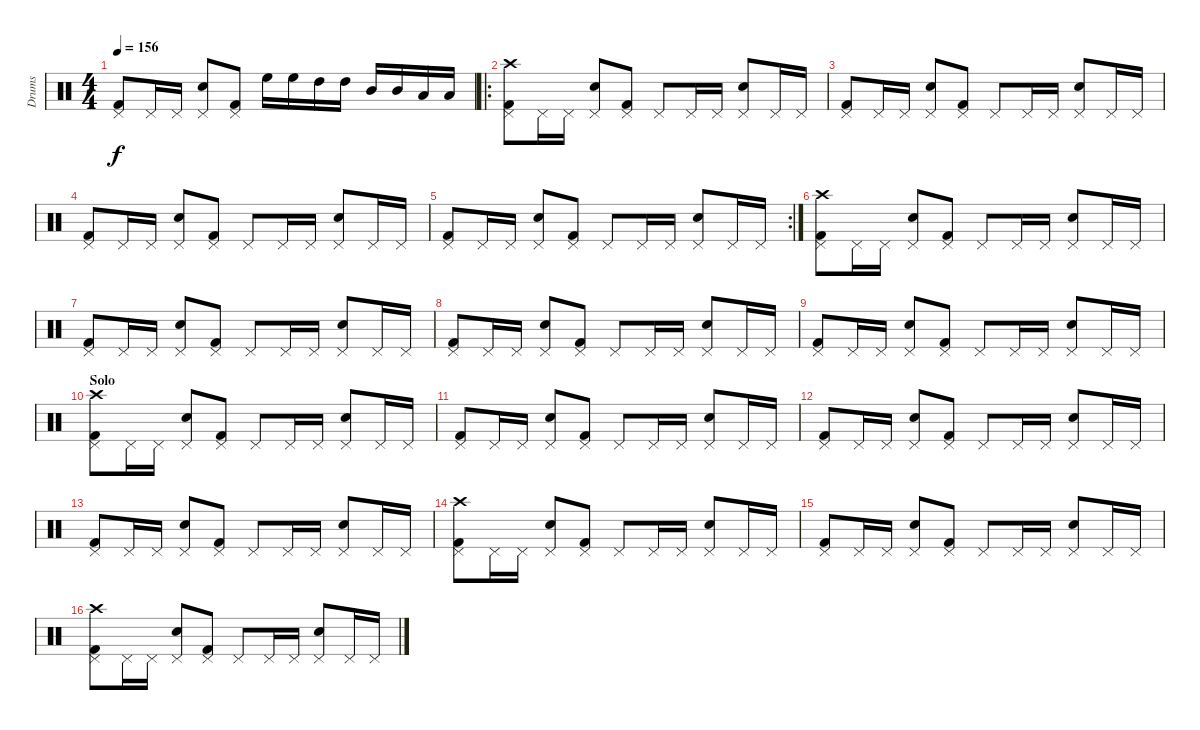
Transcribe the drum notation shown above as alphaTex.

\track ("Drums" "Drums") {instrument percussion}
\staff {score}
\articulation defaults
\ts (4 4)
\tempo 156
\clef neutral
\ks c
("Kick (hit) 2" "Pedal Hi-Hat (hit)").8{dy f} "Pedal Hi-Hat (hit)".16 "Pedal Hi-Hat (hit)".16 ("Snare (hit) 2" "Pedal Hi-Hat (hit)").8 ("Kick (hit) 2" "Pedal Hi-Hat (hit)").8 "High Floor Tom (hit)".16 "High Floor Tom (hit)".16 "High Tom (hit)".16 "High Tom (hit)".16 "Mid Tom (hit)".16 "Mid Tom (hit)".16 "Low Tom (hit)".16 "Low Tom (hit)".16 |
\ro
("Kick (hit) 2" "Pedal Hi-Hat (hit)" "Crash high (hit)").8 "Pedal Hi-Hat (hit)".16 "Pedal Hi-Hat (hit)".16 ("Snare (hit) 2" "Pedal Hi-Hat (hit)").8 ("Kick (hit) 2" "Pedal Hi-Hat (hit)").8 "Pedal Hi-Hat (hit)".8 "Pedal Hi-Hat (hit)".16 "Pedal Hi-Hat (hit)".16 ("Snare (hit) 2" "Pedal Hi-Hat (hit)").8 "Pedal Hi-Hat (hit)".16 "Pedal Hi-Hat (hit)".16 |
("Kick (hit) 2" "Pedal Hi-Hat (hit)").8 "Pedal Hi-Hat (hit)".16 "Pedal Hi-Hat (hit)".16 ("Snare (hit) 2" "Pedal Hi-Hat (hit)").8 ("Kick (hit) 2" "Pedal Hi-Hat (hit)").8 "Pedal Hi-Hat (hit)".8 "Pedal Hi-Hat (hit)".16 "Pedal Hi-Hat (hit)".16 ("Snare (hit) 2" "Pedal Hi-Hat (hit)").8 "Pedal Hi-Hat (hit)".16 "Pedal Hi-Hat (hit)".16 |
("Kick (hit) 2" "Pedal Hi-Hat (hit)").8 "Pedal Hi-Hat (hit)".16 "Pedal Hi-Hat (hit)".16 ("Snare (hit) 2" "Pedal Hi-Hat (hit)").8 ("Kick (hit) 2" "Pedal Hi-Hat (hit)").8 "Pedal Hi-Hat (hit)".8 "Pedal Hi-Hat (hit)".16 "Pedal Hi-Hat (hit)".16 ("Snare (hit) 2" "Pedal Hi-Hat (hit)").8 "Pedal Hi-Hat (hit)".16 "Pedal Hi-Hat (hit)".16 |
\rc 2
("Kick (hit) 2" "Pedal Hi-Hat (hit)").8 "Pedal Hi-Hat (hit)".16 "Pedal Hi-Hat (hit)".16 ("Snare (hit) 2" "Pedal Hi-Hat (hit)").8 ("Kick (hit) 2" "Pedal Hi-Hat (hit)").8 "Pedal Hi-Hat (hit)".8 "Pedal Hi-Hat (hit)".16 "Pedal Hi-Hat (hit)".16 ("Snare (hit) 2" "Pedal Hi-Hat (hit)").8 "Pedal Hi-Hat (hit)".16 "Pedal Hi-Hat (hit)".16 |
("Kick (hit) 2" "Pedal Hi-Hat (hit)" "Crash high (hit)").8 "Pedal Hi-Hat (hit)".16 "Pedal Hi-Hat (hit)".16 ("Snare (hit) 2" "Pedal Hi-Hat (hit)").8 ("Kick (hit) 2" "Pedal Hi-Hat (hit)").8 "Pedal Hi-Hat (hit)".8 "Pedal Hi-Hat (hit)".16 "Pedal Hi-Hat (hit)".16 ("Snare (hit) 2" "Pedal Hi-Hat (hit)").8 "Pedal Hi-Hat (hit)".16 "Pedal Hi-Hat (hit)".16 |
("Kick (hit) 2" "Pedal Hi-Hat (hit)").8 "Pedal Hi-Hat (hit)".16 "Pedal Hi-Hat (hit)".16 ("Snare (hit) 2" "Pedal Hi-Hat (hit)").8 ("Kick (hit) 2" "Pedal Hi-Hat (hit)").8 "Pedal Hi-Hat (hit)".8 "Pedal Hi-Hat (hit)".16 "Pedal Hi-Hat (hit)".16 ("Snare (hit) 2" "Pedal Hi-Hat (hit)").8 "Pedal Hi-Hat (hit)".16 "Pedal Hi-Hat (hit)".16 |
("Kick (hit) 2" "Pedal Hi-Hat (hit)").8 "Pedal Hi-Hat (hit)".16 "Pedal Hi-Hat (hit)".16 ("Snare (hit) 2" "Pedal Hi-Hat (hit)").8 ("Kick (hit) 2" "Pedal Hi-Hat (hit)").8 "Pedal Hi-Hat (hit)".8 "Pedal Hi-Hat (hit)".16 "Pedal Hi-Hat (hit)".16 ("Snare (hit) 2" "Pedal Hi-Hat (hit)").8 "Pedal Hi-Hat (hit)".16 "Pedal Hi-Hat (hit)".16 |
("Kick (hit) 2" "Pedal Hi-Hat (hit)").8 "Pedal Hi-Hat (hit)".16 "Pedal Hi-Hat (hit)".16 ("Snare (hit) 2" "Pedal Hi-Hat (hit)").8 ("Kick (hit) 2" "Pedal Hi-Hat (hit)").8 "Pedal Hi-Hat (hit)".8 "Pedal Hi-Hat (hit)".16 "Pedal Hi-Hat (hit)".16 ("Snare (hit) 2" "Pedal Hi-Hat (hit)").8 "Pedal Hi-Hat (hit)".16 "Pedal Hi-Hat (hit)".16 |
\section ("" "Solo")
("Kick (hit) 2" "Pedal Hi-Hat (hit)" "Crash high (hit)").8 "Pedal Hi-Hat (hit)".16 "Pedal Hi-Hat (hit)".16 ("Snare (hit) 2" "Pedal Hi-Hat (hit)").8 ("Kick (hit) 2" "Pedal Hi-Hat (hit)").8 "Pedal Hi-Hat (hit)".8 "Pedal Hi-Hat (hit)".16 "Pedal Hi-Hat (hit)".16 ("Snare (hit) 2" "Pedal Hi-Hat (hit)").8 "Pedal Hi-Hat (hit)".16 "Pedal Hi-Hat (hit)".16 |
("Kick (hit) 2" "Pedal Hi-Hat (hit)").8 "Pedal Hi-Hat (hit)".16 "Pedal Hi-Hat (hit)".16 ("Snare (hit) 2" "Pedal Hi-Hat (hit)").8 ("Kick (hit) 2" "Pedal Hi-Hat (hit)").8 "Pedal Hi-Hat (hit)".8 "Pedal Hi-Hat (hit)".16 "Pedal Hi-Hat (hit)".16 ("Snare (hit) 2" "Pedal Hi-Hat (hit)").8 "Pedal Hi-Hat (hit)".16 "Pedal Hi-Hat (hit)".16 |
("Kick (hit) 2" "Pedal Hi-Hat (hit)").8 "Pedal Hi-Hat (hit)".16 "Pedal Hi-Hat (hit)".16 ("Snare (hit) 2" "Pedal Hi-Hat (hit)").8 ("Kick (hit) 2" "Pedal Hi-Hat (hit)").8 "Pedal Hi-Hat (hit)".8 "Pedal Hi-Hat (hit)".16 "Pedal Hi-Hat (hit)".16 ("Snare (hit) 2" "Pedal Hi-Hat (hit)").8 "Pedal Hi-Hat (hit)".16 "Pedal Hi-Hat (hit)".16 |
("Kick (hit) 2" "Pedal Hi-Hat (hit)").8 "Pedal Hi-Hat (hit)".16 "Pedal Hi-Hat (hit)".16 ("Snare (hit) 2" "Pedal Hi-Hat (hit)").8 ("Kick (hit) 2" "Pedal Hi-Hat (hit)").8 "Pedal Hi-Hat (hit)".8 "Pedal Hi-Hat (hit)".16 "Pedal Hi-Hat (hit)".16 ("Snare (hit) 2" "Pedal Hi-Hat (hit)").8 "Pedal Hi-Hat (hit)".16 "Pedal Hi-Hat (hit)".16 |
("Kick (hit) 2" "Pedal Hi-Hat (hit)" "Crash high (hit)").8 "Pedal Hi-Hat (hit)".16 "Pedal Hi-Hat (hit)".16 ("Snare (hit) 2" "Pedal Hi-Hat (hit)").8 ("Kick (hit) 2" "Pedal Hi-Hat (hit)").8 "Pedal Hi-Hat (hit)".8 "Pedal Hi-Hat (hit)".16 "Pedal Hi-Hat (hit)".16 ("Snare (hit) 2" "Pedal Hi-Hat (hit)").8 "Pedal Hi-Hat (hit)".16 "Pedal Hi-Hat (hit)".16 |
("Kick (hit) 2" "Pedal Hi-Hat (hit)").8 "Pedal Hi-Hat (hit)".16 "Pedal Hi-Hat (hit)".16 ("Snare (hit) 2" "Pedal Hi-Hat (hit)").8 ("Kick (hit) 2" "Pedal Hi-Hat (hit)").8 "Pedal Hi-Hat (hit)".8 "Pedal Hi-Hat (hit)".16 "Pedal Hi-Hat (hit)".16 ("Snare (hit) 2" "Pedal Hi-Hat (hit)").8 "Pedal Hi-Hat (hit)".16 "Pedal Hi-Hat (hit)".16 |
("Kick (hit) 2" "Pedal Hi-Hat (hit)" "Crash high (hit)").8 "Pedal Hi-Hat (hit)".16 "Pedal Hi-Hat (hit)".16 ("Snare (hit) 2" "Pedal Hi-Hat (hit)").8 ("Kick (hit) 2" "Pedal Hi-Hat (hit)").8 "Pedal Hi-Hat (hit)".8 "Pedal Hi-Hat (hit)".16 "Pedal Hi-Hat (hit)".16 ("Snare (hit) 2" "Pedal Hi-Hat (hit)").8 "Pedal Hi-Hat (hit)".16 "Pedal Hi-Hat (hit)".16
